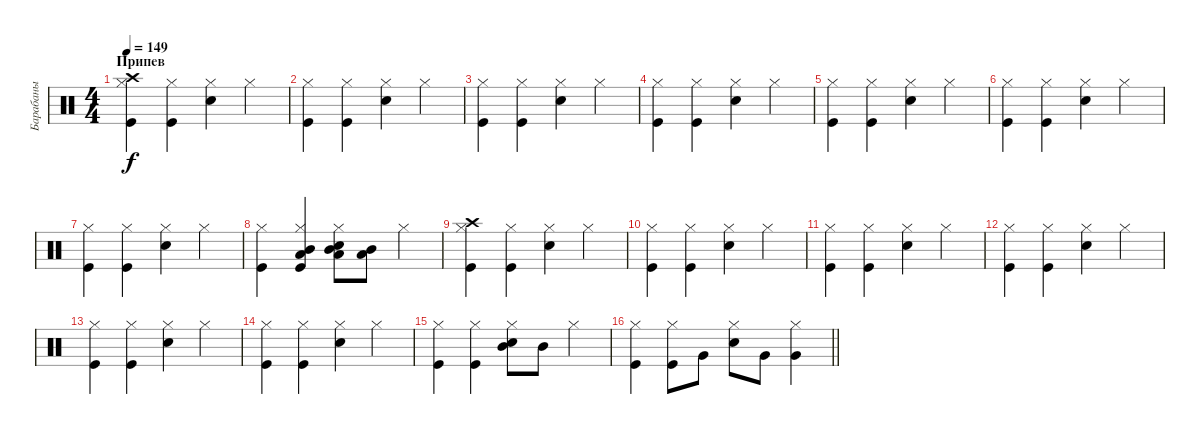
\track ("Барабаны" "Барабаны") {instrument percussion}
\staff {score}
\articulation defaults
\ts (4 4)
\section ("" "Припев")
\tempo 149
\clef neutral
\ks c
("Kick (hit)" "Hi-Hat (closed)" "Crash high (hit)").4{dy f} ("Kick (hit)" "Hi-Hat (closed)").4 ("Snare (hit) 2" "Hi-Hat (closed)").4 "Hi-Hat (closed)".4 |
("Kick (hit)" "Hi-Hat (closed)").4 ("Kick (hit)" "Hi-Hat (closed)").4 ("Snare (hit) 2" "Hi-Hat (closed)").4 "Hi-Hat (closed)".4 |
("Kick (hit)" "Hi-Hat (closed)").4 ("Kick (hit)" "Hi-Hat (closed)").4 ("Snare (hit) 2" "Hi-Hat (closed)").4 "Hi-Hat (closed)".4 |
("Kick (hit)" "Hi-Hat (closed)").4 ("Kick (hit)" "Hi-Hat (closed)").4 ("Snare (hit) 2" "Hi-Hat (closed)").4 "Hi-Hat (closed)".4 |
("Kick (hit)" "Hi-Hat (closed)").4 ("Kick (hit)" "Hi-Hat (closed)").4 ("Snare (hit) 2" "Hi-Hat (closed)").4 "Hi-Hat (closed)".4 |
("Kick (hit)" "Hi-Hat (closed)").4 ("Kick (hit)" "Hi-Hat (closed)").4 ("Snare (hit) 2" "Hi-Hat (closed)").4 "Hi-Hat (closed)".4 |
("Kick (hit)" "Hi-Hat (closed)").4 ("Kick (hit)" "Hi-Hat (closed)").4 ("Snare (hit) 2" "Hi-Hat (closed)").4 "Hi-Hat (closed)".4 |
("Kick (hit)" "Hi-Hat (closed)").4 ("Kick (hit)" "Hi-Hat (closed)" "Low Tom (hit)" "Mid Tom (hit)").4 ("Snare (hit) 2" "Hi-Hat (closed)" "Low Tom (hit)" "Mid Tom (hit)").8 ("Low Tom (hit)" "Mid Tom (hit)").8 "Hi-Hat (closed)".4 |
("Kick (hit)" "Hi-Hat (closed)" "Crash high (hit)").4 ("Kick (hit)" "Hi-Hat (closed)").4 ("Snare (hit) 2" "Hi-Hat (closed)").4 "Hi-Hat (closed)".4 |
("Kick (hit)" "Hi-Hat (closed)").4 ("Kick (hit)" "Hi-Hat (closed)").4 ("Snare (hit) 2" "Hi-Hat (closed)").4 "Hi-Hat (closed)".4 |
("Kick (hit)" "Hi-Hat (closed)").4 ("Kick (hit)" "Hi-Hat (closed)").4 ("Snare (hit) 2" "Hi-Hat (closed)").4 "Hi-Hat (closed)".4 |
("Kick (hit)" "Hi-Hat (closed)").4 ("Kick (hit)" "Hi-Hat (closed)").4 ("Snare (hit) 2" "Hi-Hat (closed)").4 "Hi-Hat (closed)".4 |
("Kick (hit)" "Hi-Hat (closed)").4 ("Kick (hit)" "Hi-Hat (closed)").4 ("Snare (hit) 2" "Hi-Hat (closed)").4 "Hi-Hat (closed)".4 |
("Kick (hit)" "Hi-Hat (closed)").4 ("Kick (hit)" "Hi-Hat (closed)").4 ("Snare (hit) 2" "Hi-Hat (closed)").4 "Hi-Hat (closed)".4 |
("Kick (hit)" "Hi-Hat (closed)").4 ("Kick (hit)" "Hi-Hat (closed)").4 ("Snare (hit) 2" "Hi-Hat (closed)" "Mid Tom (hit)").8 "Mid Tom (hit)".8 "Hi-Hat (closed)".4 |
\barLineRight lightlight
("Kick (hit)" "Hi-Hat (closed)").4 ("Kick (hit)" "Hi-Hat (closed)").8 "Very Low Tom (hit)".8 ("Snare (hit) 2" "Hi-Hat (closed)").8 "Very Low Tom (hit)".8 ("Hi-Hat (closed)" "Very Low Tom (hit)").4
